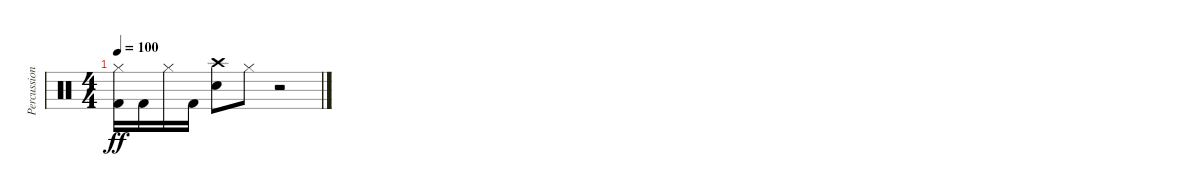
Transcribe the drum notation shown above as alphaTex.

\track ("Percussion" "Percussion") {instrument percussion}
\staff {score}
\articulation defaults
\ts (4 4)
\tempo 100
\clef neutral
\ks c
("Kick (hit) 2" "Hi-Hat (closed)").16{dy ff} "Kick (hit) 2".16 "Hi-Hat (closed)".16 "Kick (hit) 2".16 ("Electric Snare (hit)" "Crash high (hit)").8 "Hi-Hat (closed)".8 r.2
